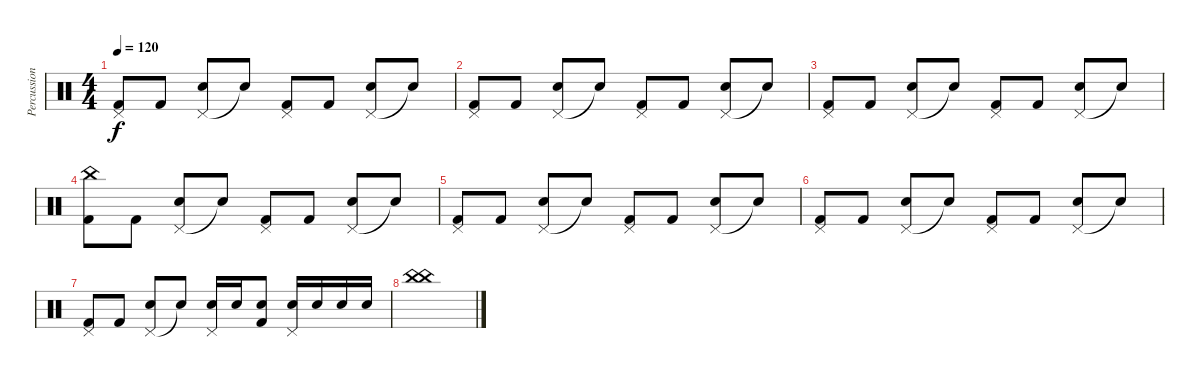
\track ("Percussions" "Percussion") {instrument percussion}
\staff {score}
\articulation defaults
\ts (4 4)
\tempo 120
\clef neutral
\ks c
("Pedal Hi-Hat (hit)" "Kick (hit) 2").8{dy f} "Kick (hit) 2".8 ("Pedal Hi-Hat (hit)" "Snare (hit) 2").8 "Snare (hit)"{t}.8 ("Pedal Hi-Hat (hit)" "Kick (hit) 2").8 "Kick (hit) 2".8 ("Pedal Hi-Hat (hit)" "Snare (hit) 2").8 "Snare (hit)"{t}.8 |
("Pedal Hi-Hat (hit)" "Kick (hit) 2").8 "Kick (hit) 2".8 ("Pedal Hi-Hat (hit)" "Snare (hit) 2").8 "Snare (hit)"{t}.8 ("Pedal Hi-Hat (hit)" "Kick (hit) 2").8 "Kick (hit) 2".8 ("Pedal Hi-Hat (hit)" "Snare (hit) 2").8 "Snare (hit)"{t}.8 |
("Pedal Hi-Hat (hit)" "Kick (hit) 2").8 "Kick (hit) 2".8 ("Pedal Hi-Hat (hit)" "Snare (hit) 2").8 "Snare (hit)"{t}.8 ("Pedal Hi-Hat (hit)" "Kick (hit) 2").8 "Kick (hit) 2".8 ("Pedal Hi-Hat (hit)" "Snare (hit) 2").8 "Snare (hit)"{t}.8 |
("China (hit)" "Kick (hit) 2").8 "Kick (hit) 2".8 ("Pedal Hi-Hat (hit)" "Snare (hit) 2").8 "Snare (hit)"{t}.8 ("Pedal Hi-Hat (hit)" "Kick (hit) 2").8 "Kick (hit) 2".8 ("Pedal Hi-Hat (hit)" "Snare (hit) 2").8 "Snare (hit)"{t}.8 |
("Pedal Hi-Hat (hit)" "Kick (hit) 2").8 "Kick (hit) 2".8 ("Pedal Hi-Hat (hit)" "Snare (hit) 2").8 "Snare (hit)"{t}.8 ("Pedal Hi-Hat (hit)" "Kick (hit) 2").8 "Kick (hit) 2".8 ("Pedal Hi-Hat (hit)" "Snare (hit) 2").8 "Snare (hit)"{t}.8 |
("Pedal Hi-Hat (hit)" "Kick (hit) 2").8 "Kick (hit) 2".8 ("Pedal Hi-Hat (hit)" "Snare (hit) 2").8 "Snare (hit)"{t}.8 ("Pedal Hi-Hat (hit)" "Kick (hit) 2").8 "Kick (hit) 2".8 ("Pedal Hi-Hat (hit)" "Snare (hit) 2").8 "Snare (hit)"{t}.8 |
("Pedal Hi-Hat (hit)" "Kick (hit) 2").8 "Kick (hit) 2".8 ("Pedal Hi-Hat (hit)" "Snare (hit) 2").8 "Snare (hit)"{t}.8 ("Pedal Hi-Hat (hit)" "Snare (hit) 2").16 "Snare (hit) 2".16 ("Snare (hit) 2" "Kick (hit) 2").8 ("Pedal Hi-Hat (hit)" "Snare (hit) 2").16 "Snare (hit) 2".16 "Snare (hit) 2".16 "Snare (hit) 2".16 |
("China (hit)" "China (hit)").1
